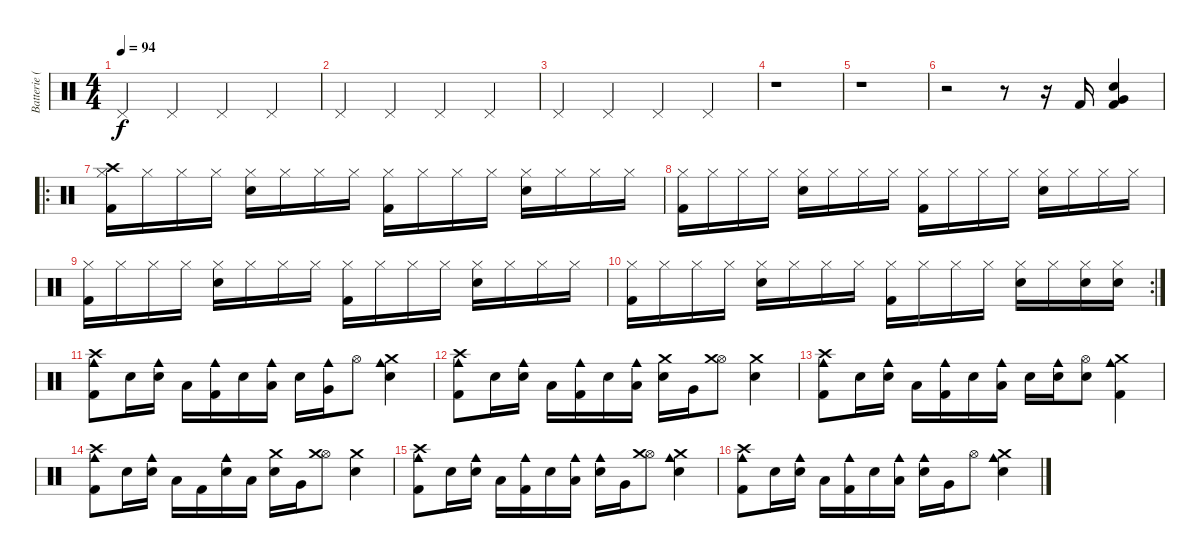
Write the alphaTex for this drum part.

\track ("Batterie (Richard Kolinka)" "Batterie (") {instrument percussion}
\staff {score}
\articulation defaults
\ts (4 4)
\tempo 94
\clef neutral
\ks c "Pedal Hi-Hat (hit)".4{dy f} "Pedal Hi-Hat (hit)".4 "Pedal Hi-Hat (hit)".4 "Pedal Hi-Hat (hit)".4
|
"Pedal Hi-Hat (hit)".4 "Pedal Hi-Hat (hit)".4 "Pedal Hi-Hat (hit)".4 "Pedal Hi-Hat (hit)".4 |
"Pedal Hi-Hat (hit)".4 "Pedal Hi-Hat (hit)".4 "Pedal Hi-Hat (hit)".4 "Pedal Hi-Hat (hit)".4 |
r.1 |
r.1 |
r.2 r.8 r.16 "Kick (hit) 2".16 ("Kick (hit) 2" "Electric Snare (hit)" "Very Low Tom (hit)").4 |
\ro
("Kick (hit) 2" "Hi-Hat (closed)" "Crash high (hit)").16 "Hi-Hat (closed)".16 "Hi-Hat (closed)".16 "Hi-Hat (closed)".16 ("Snare (hit) 2" "Hi-Hat (closed)").16 "Hi-Hat (closed)".16 "Hi-Hat (closed)".16 "Hi-Hat (closed)".16 ("Kick (hit) 2" "Hi-Hat (closed)").16 "Hi-Hat (closed)".16 "Hi-Hat (closed)".16 "Hi-Hat (closed)".16 ("Snare (hit) 2" "Hi-Hat (closed)").16 "Hi-Hat (closed)".16 "Hi-Hat (closed)".16 "Hi-Hat (closed)".16 |
("Kick (hit) 2" "Hi-Hat (closed)").16 "Hi-Hat (closed)".16 "Hi-Hat (closed)".16 "Hi-Hat (closed)".16 ("Snare (hit) 2" "Hi-Hat (closed)").16 "Hi-Hat (closed)".16 "Hi-Hat (closed)".16 "Hi-Hat (closed)".16 ("Kick (hit) 2" "Hi-Hat (closed)").16 "Hi-Hat (closed)".16 "Hi-Hat (closed)".16 "Hi-Hat (closed)".16 ("Snare (hit) 2" "Hi-Hat (closed)").16 "Hi-Hat (closed)".16 "Hi-Hat (closed)".16 "Hi-Hat (closed)".16 |
("Kick (hit) 2" "Hi-Hat (closed)").16 "Hi-Hat (closed)".16 "Hi-Hat (closed)".16 "Hi-Hat (closed)".16 ("Snare (hit) 2" "Hi-Hat (closed)").16 "Hi-Hat (closed)".16 "Hi-Hat (closed)".16 "Hi-Hat (closed)".16 ("Kick (hit) 2" "Hi-Hat (closed)").16 "Hi-Hat (closed)".16 "Hi-Hat (closed)".16 "Hi-Hat (closed)".16 ("Snare (hit) 2" "Hi-Hat (closed)").16 "Hi-Hat (closed)".16 "Hi-Hat (closed)".16 "Hi-Hat (closed)".16 |
\rc 2
("Kick (hit) 2" "Hi-Hat (closed)").16 "Hi-Hat (closed)".16 "Hi-Hat (closed)".16 "Hi-Hat (closed)".16 ("Snare (hit) 2" "Hi-Hat (closed)").16 "Hi-Hat (closed)".16 "Hi-Hat (closed)".16 "Hi-Hat (closed)".16 ("Kick (hit) 2" "Hi-Hat (closed)").16 "Hi-Hat (closed)".16 "Hi-Hat (closed)".16 "Hi-Hat (closed)".16 ("Snare (hit) 2" "Hi-Hat (closed)").16 "Hi-Hat (closed)".16 ("Snare (hit) 2" "Hi-Hat (closed)").16 ("Snare (hit) 2" "Hi-Hat (closed)").16 |
("Kick (hit) 2" "Cowbell medium (hit)" "Crash high (hit)").8 "Snare (hit) 2".16 ("Snare (hit) 2" "Cowbell medium (hit)").16 "Low Tom (hit)".16 ("Kick (hit) 2" "Cowbell medium (hit)").16 "Snare (hit) 2".16 ("Cowbell medium (hit)" "Low Tom (hit)").16 "Snare (hit) 2".16 ("Very Low Tom (hit)" "Cowbell medium (hit)").16 "Hi-Hat (open)".8 ("Snare (hit) 2" "Cowbell medium (hit)" "Crash medium (hit)").4 |
("Kick (hit) 2" "Cowbell medium (hit)" "Crash high (hit)").8 "Snare (hit) 2".16 ("Snare (hit) 2" "Cowbell medium (hit)").16 "Low Tom (hit)".16 ("Kick (hit) 2" "Cowbell medium (hit)").16 "Snare (hit) 2".16 ("Cowbell medium (hit)" "Low Tom (hit)").16 ("Snare (hit) 2" "Crash medium (hit)").16 "Very Low Tom (hit)".16 ("Hi-Hat (open)" "Crash medium (hit)").8 ("Snare (hit) 2" "Crash medium (hit)").4 |
("Kick (hit) 2" "Cowbell medium (hit)" "Crash high (hit)").8 "Snare (hit) 2".16 ("Snare (hit) 2" "Cowbell medium (hit)").16 "Low Tom (hit)".16 ("Kick (hit) 2" "Cowbell medium (hit)").16 "Snare (hit) 2".16 ("Cowbell medium (hit)" "Low Tom (hit)").16 "Snare (hit) 2".16 ("Snare (hit) 2" "Cowbell medium (hit)").16 ("Snare (hit) 2" "Hi-Hat (open)").8 ("Kick (hit) 2" "Cowbell medium (hit)" "Crash medium (hit)").4 |
("Kick (hit) 2" "Cowbell medium (hit)" "Crash high (hit)").8 "Snare (hit) 2".16 ("Snare (hit) 2" "Cowbell medium (hit)").16 "Low Tom (hit)".16 "Kick (hit) 2".16 ("Snare (hit) 2" "Cowbell medium (hit)").16 "Low Tom (hit)".16 ("Snare (hit) 2" "Crash medium (hit)").16 "Very Low Tom (hit)".16 ("Hi-Hat (open)" "Crash medium (hit)").8 ("Snare (hit) 2" "Crash medium (hit)").4 |
("Kick (hit) 2" "Cowbell medium (hit)" "Crash high (hit)").8 "Snare (hit) 2".16 ("Snare (hit) 2" "Cowbell medium (hit)").16 "Low Tom (hit)".16 ("Kick (hit) 2" "Cowbell medium (hit)").16 "Snare (hit) 2".16 ("Cowbell medium (hit)" "Low Tom (hit)").16 ("Snare (hit) 2" "Cowbell medium (hit)").16 "Very Low Tom (hit)".16 ("Hi-Hat (open)" "Crash medium (hit)").8 ("Snare (hit) 2" "Cowbell medium (hit)" "Crash medium (hit)").4 |
("Kick (hit) 2" "Cowbell medium (hit)" "Crash high (hit)").8 "Snare (hit) 2".16 ("Snare (hit) 2" "Cowbell medium (hit)").16 "Low Tom (hit)".16 ("Kick (hit) 2" "Cowbell medium (hit)").16 "Snare (hit) 2".16 ("Cowbell medium (hit)" "Low Tom (hit)").16 ("Snare (hit) 2" "Cowbell medium (hit)").16 "Very Low Tom (hit)".16 "Hi-Hat (open)".8 ("Snare (hit) 2" "Cowbell medium (hit)" "Crash medium (hit)").4
